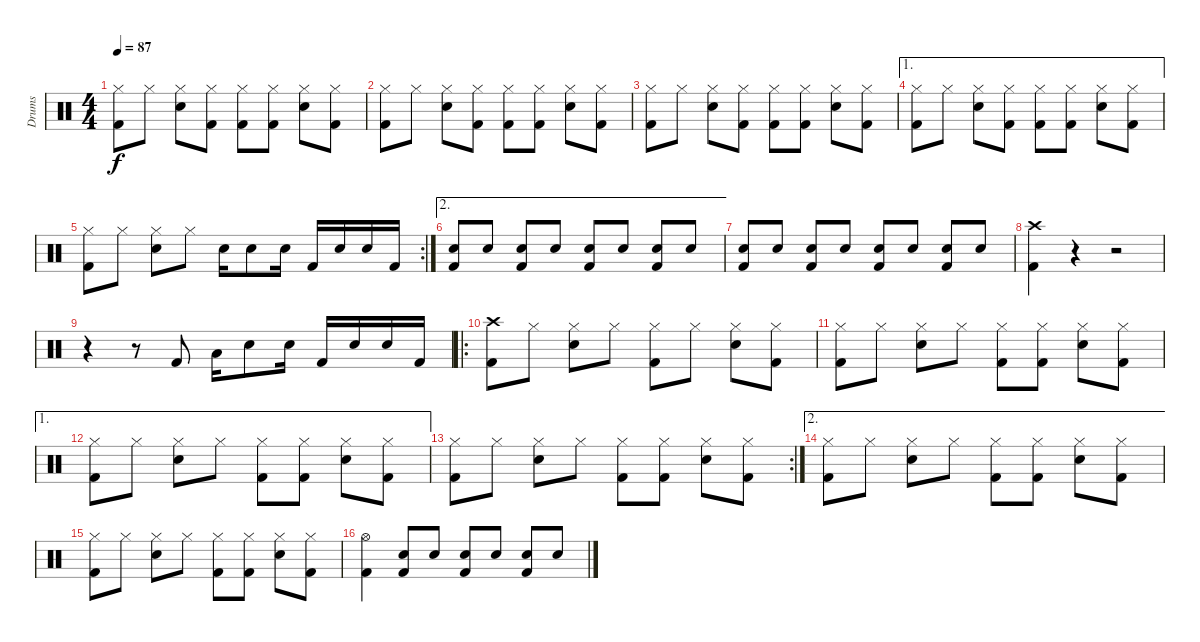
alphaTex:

\track ("Drums" "Drums") {instrument percussion}
\staff {score}
\articulation defaults
\ts (4 4)
\tempo 87
\clef neutral
\ks c
("Hi-Hat (closed)" "Kick (hit) 2").8{dy f} "Hi-Hat (closed)".8 ("Hi-Hat (closed)" "Snare (hit) 2").8 ("Hi-Hat (closed)" "Kick (hit) 2").8 ("Hi-Hat (closed)" "Kick (hit) 2").8 ("Hi-Hat (closed)" "Kick (hit) 2").8 ("Hi-Hat (closed)" "Snare (hit) 2").8 ("Hi-Hat (closed)" "Kick (hit) 2").8 |
("Hi-Hat (closed)" "Kick (hit) 2").8 "Hi-Hat (closed)".8 ("Hi-Hat (closed)" "Snare (hit) 2").8 ("Hi-Hat (closed)" "Kick (hit) 2").8 ("Hi-Hat (closed)" "Kick (hit) 2").8 ("Hi-Hat (closed)" "Kick (hit) 2").8 ("Hi-Hat (closed)" "Snare (hit) 2").8 ("Hi-Hat (closed)" "Kick (hit) 2").8 |
("Hi-Hat (closed)" "Kick (hit) 2").8 "Hi-Hat (closed)".8 ("Hi-Hat (closed)" "Snare (hit) 2").8 ("Hi-Hat (closed)" "Kick (hit) 2").8 ("Hi-Hat (closed)" "Kick (hit) 2").8 ("Hi-Hat (closed)" "Kick (hit) 2").8 ("Hi-Hat (closed)" "Snare (hit) 2").8 ("Hi-Hat (closed)" "Kick (hit) 2").8 |
\ae 1
("Hi-Hat (closed)" "Kick (hit) 2").8 "Hi-Hat (closed)".8 ("Hi-Hat (closed)" "Snare (hit) 2").8 ("Hi-Hat (closed)" "Kick (hit) 2").8 ("Hi-Hat (closed)" "Kick (hit) 2").8 ("Hi-Hat (closed)" "Kick (hit) 2").8 ("Hi-Hat (closed)" "Snare (hit) 2").8 ("Hi-Hat (closed)" "Kick (hit) 2").8 |
\rc 2
("Hi-Hat (closed)" "Kick (hit) 2").8 "Hi-Hat (closed)".8 ("Hi-Hat (closed)" "Snare (hit) 2").8 "Hi-Hat (closed)".8 "Snare (hit) 2".16 "Snare (hit) 2".8 "Snare (hit) 2".16 "Kick (hit) 2".16 "Snare (hit) 2".16 "Snare (hit) 2".16 "Kick (hit) 2".16 |
\ae 2
("Electric Snare (hit)" "Kick (hit) 2").8 "Electric Snare (hit)".8 ("Electric Snare (hit)" "Kick (hit) 2").8 "Electric Snare (hit)".8 ("Electric Snare (hit)" "Kick (hit) 2").8 "Electric Snare (hit)".8 ("Electric Snare (hit)" "Kick (hit) 2").8 "Electric Snare (hit)".8 |
("Electric Snare (hit)" "Kick (hit) 2").8 "Electric Snare (hit)".8 ("Electric Snare (hit)" "Kick (hit) 2").8 "Electric Snare (hit)".8 ("Electric Snare (hit)" "Kick (hit) 2").8 "Electric Snare (hit)".8 ("Electric Snare (hit)" "Kick (hit) 2").8 "Electric Snare (hit)".8 |
("Crash high (hit)" "Kick (hit) 2").4 r.4 r.2 |
r.4 r.8 "Kick (hit) 2".8 "Low Tom (hit)".16 "Snare (hit) 2".8 "Snare (hit) 2".16 "Kick (hit) 2".16 "Snare (hit) 2".16 "Snare (hit) 2".16 "Kick (hit) 2".16 |
\ro
("Crash high (hit)" "Kick (hit) 2").8 "Hi-Hat (closed)".8 ("Hi-Hat (closed)" "Snare (hit) 2").8 "Hi-Hat (closed)".8 ("Hi-Hat (closed)" "Kick (hit) 2").8 "Hi-Hat (closed)".8 ("Hi-Hat (closed)" "Snare (hit) 2").8 ("Hi-Hat (closed)" "Kick (hit) 2").8 |
("Hi-Hat (closed)" "Kick (hit) 2").8 "Hi-Hat (closed)".8 ("Hi-Hat (closed)" "Snare (hit) 2").8 "Hi-Hat (closed)".8 ("Hi-Hat (closed)" "Kick (hit) 2").8 ("Hi-Hat (closed)" "Kick (hit) 2").8 ("Hi-Hat (closed)" "Snare (hit) 2").8 ("Hi-Hat (closed)" "Kick (hit) 2").8 |
\ae 1
("Hi-Hat (closed)" "Kick (hit) 2").8 "Hi-Hat (closed)".8 ("Hi-Hat (closed)" "Snare (hit) 2").8 "Hi-Hat (closed)".8 ("Hi-Hat (closed)" "Kick (hit) 2").8 ("Hi-Hat (closed)" "Kick (hit) 2").8 ("Hi-Hat (closed)" "Snare (hit) 2").8 ("Hi-Hat (closed)" "Kick (hit) 2").8 |
\rc 2
("Hi-Hat (closed)" "Kick (hit) 2").8 "Hi-Hat (closed)".8 ("Hi-Hat (closed)" "Snare (hit) 2").8 "Hi-Hat (closed)".8 ("Hi-Hat (closed)" "Kick (hit) 2").8 ("Hi-Hat (closed)" "Kick (hit) 2").8 ("Hi-Hat (closed)" "Snare (hit) 2").8 ("Hi-Hat (closed)" "Kick (hit) 2").8 |
\ae 2
("Hi-Hat (closed)" "Kick (hit) 2").8 "Hi-Hat (closed)".8 ("Hi-Hat (closed)" "Snare (hit) 2").8 "Hi-Hat (closed)".8 ("Hi-Hat (closed)" "Kick (hit) 2").8 ("Hi-Hat (closed)" "Kick (hit) 2").8 ("Hi-Hat (closed)" "Snare (hit) 2").8 ("Hi-Hat (closed)" "Kick (hit) 2").8 |
("Hi-Hat (closed)" "Kick (hit) 2").8 "Hi-Hat (closed)".8 ("Hi-Hat (closed)" "Snare (hit) 2").8 "Hi-Hat (closed)".8 ("Hi-Hat (closed)" "Kick (hit) 2").8 ("Hi-Hat (closed)" "Kick (hit) 2").8 ("Hi-Hat (closed)" "Snare (hit) 2").8 ("Hi-Hat (closed)" "Kick (hit) 2").8 |
("Hi-Hat (open)" "Kick (hit) 2").4 ("Electric Snare (hit)" "Kick (hit) 2").8 "Electric Snare (hit)".8 ("Electric Snare (hit)" "Kick (hit) 2").8 "Electric Snare (hit)".8 ("Electric Snare (hit)" "Kick (hit) 2").8 "Electric Snare (hit)".8
